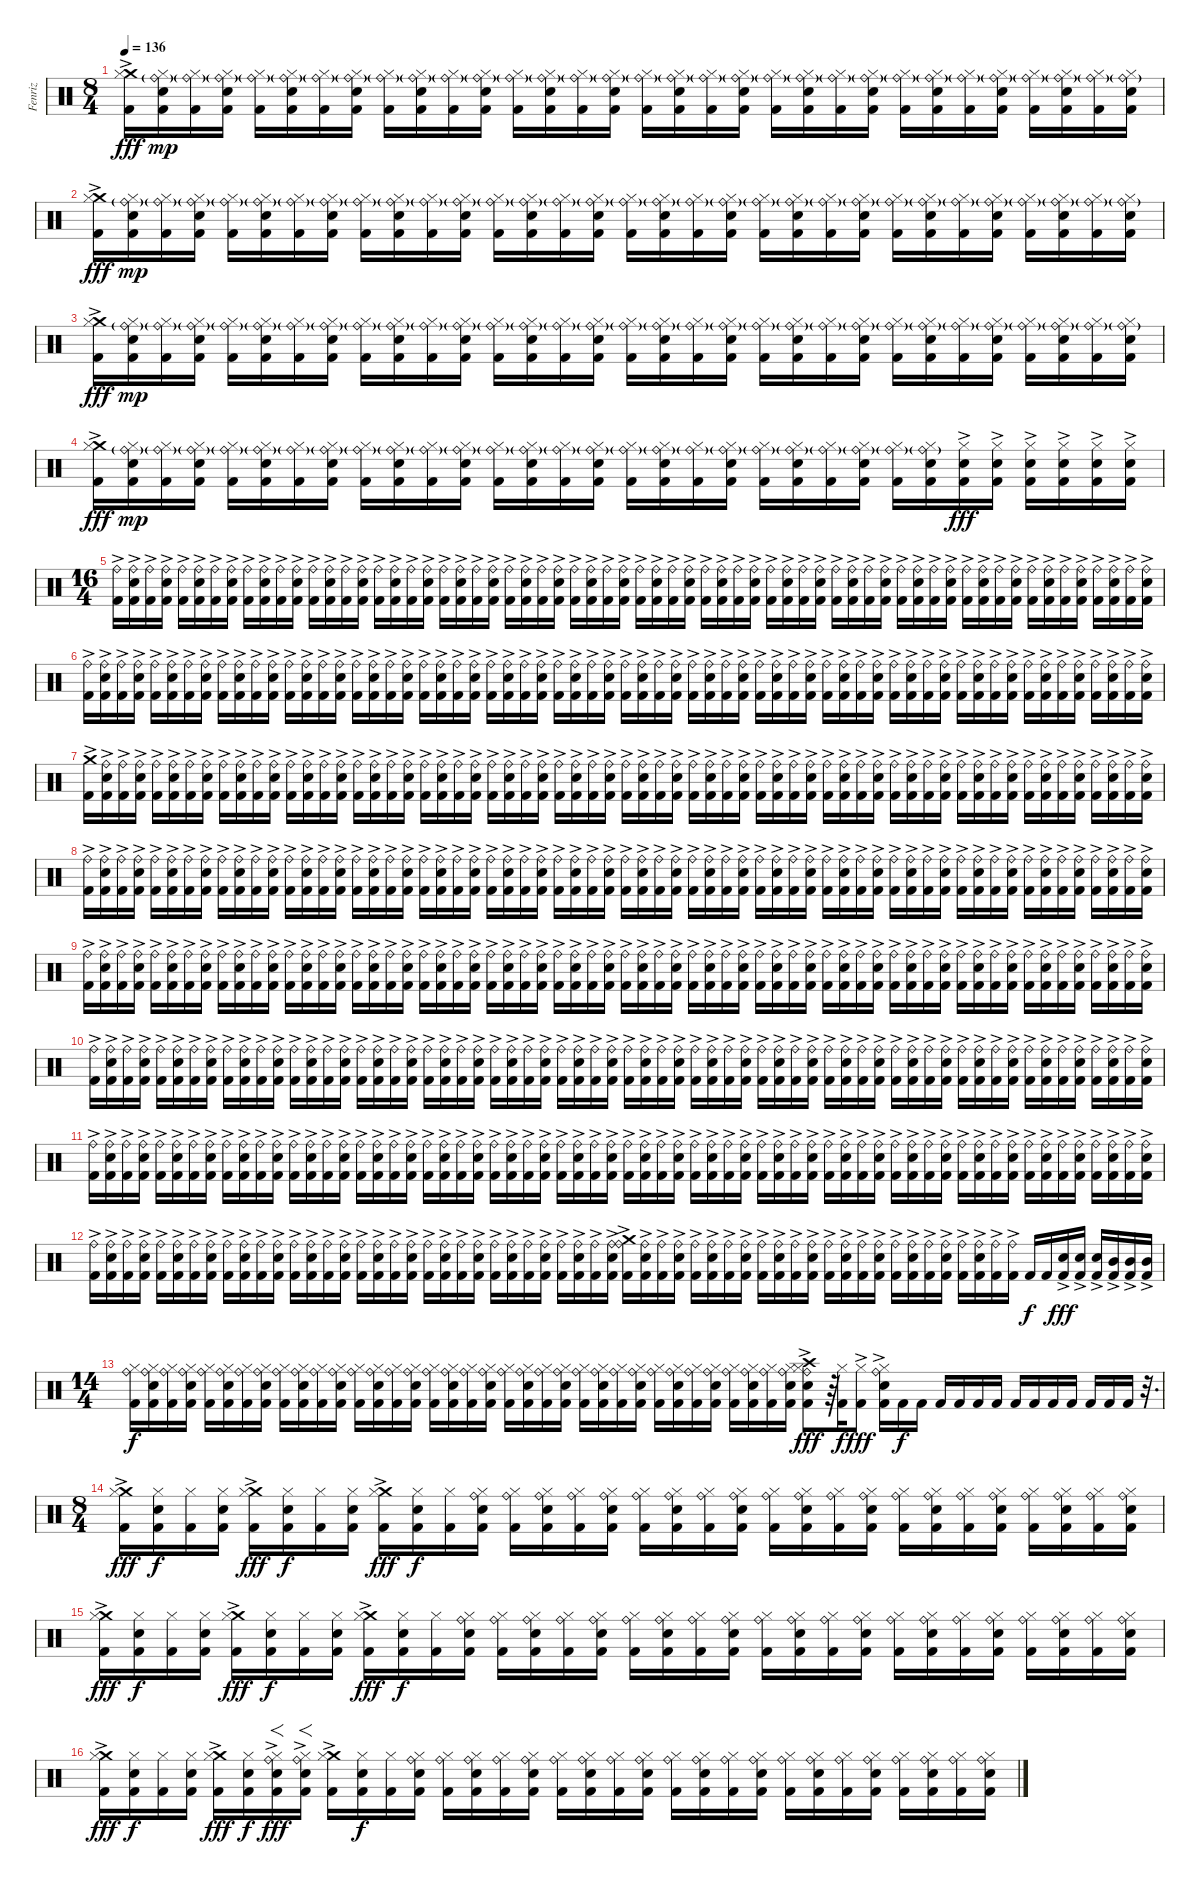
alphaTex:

\track ("Fenriz" "Fenriz") {instrument percussion}
\staff {score}
\articulation defaults
\ts (8 4)
\tempo 136
\clef neutral
\ks c
("Crash medium (hit)"{ac} "Hi-Hat (closed)" "Kick (hit) 2").16{dy fff} ("Ride (bell)"{g} "Snare (hit) 2" "Hi-Hat (closed)" "Kick (hit) 2").16{dy mp} ("Ride (bell)"{g} "Hi-Hat (closed)" "Kick (hit) 2").16 ("Ride (bell)"{g} "Snare (hit) 2" "Hi-Hat (closed)" "Kick (hit) 2").16 ("Ride (bell)"{g} "Hi-Hat (closed)" "Kick (hit) 2").16 ("Ride (bell)"{g} "Snare (hit) 2" "Hi-Hat (closed)" "Kick (hit) 2").16 ("Ride (bell)"{g} "Hi-Hat (closed)" "Kick (hit) 2").16 ("Ride (bell)"{g} "Snare (hit) 2" "Hi-Hat (closed)" "Kick (hit) 2").16 ("Ride (bell)"{g} "Hi-Hat (closed)" "Kick (hit) 2").16 ("Ride (bell)"{g} "Snare (hit) 2" "Hi-Hat (closed)" "Kick (hit) 2").16 ("Ride (bell)"{g} "Hi-Hat (closed)" "Kick (hit) 2").16 ("Ride (bell)"{g} "Snare (hit) 2" "Hi-Hat (closed)" "Kick (hit) 2").16 ("Ride (bell)"{g} "Hi-Hat (closed)" "Kick (hit) 2").16 ("Ride (bell)"{g} "Snare (hit) 2" "Hi-Hat (closed)" "Kick (hit) 2").16 ("Ride (bell)"{g} "Hi-Hat (closed)" "Kick (hit) 2").16 ("Ride (bell)"{g} "Snare (hit) 2" "Hi-Hat (closed)" "Kick (hit) 2").16 ("Ride (bell)"{g} "Hi-Hat (closed)" "Kick (hit) 2").16 ("Ride (bell)"{g} "Snare (hit) 2" "Hi-Hat (closed)" "Kick (hit) 2").16 ("Ride (bell)"{g} "Hi-Hat (closed)" "Kick (hit) 2").16 ("Ride (bell)"{g} "Snare (hit) 2" "Hi-Hat (closed)" "Kick (hit) 2").16 ("Ride (bell)"{g} "Hi-Hat (closed)" "Kick (hit) 2").16 ("Ride (bell)"{g} "Snare (hit) 2" "Hi-Hat (closed)" "Kick (hit) 2").16 ("Ride (bell)"{g} "Hi-Hat (closed)" "Kick (hit) 2").16 ("Ride (bell)"{g} "Snare (hit) 2" "Hi-Hat (closed)" "Kick (hit) 2").16 ("Ride (bell)"{g} "Hi-Hat (closed)" "Kick (hit) 2").16 ("Ride (bell)"{g} "Snare (hit) 2" "Hi-Hat (closed)" "Kick (hit) 2").16 ("Ride (bell)"{g} "Hi-Hat (closed)" "Kick (hit) 2").16 ("Ride (bell)"{g} "Snare (hit) 2" "Hi-Hat (closed)" "Kick (hit) 2").16 ("Ride (bell)"{g} "Hi-Hat (closed)" "Kick (hit) 2").16 ("Ride (bell)"{g} "Snare (hit) 2" "Hi-Hat (closed)" "Kick (hit) 2").16 ("Ride (bell)"{g} "Hi-Hat (closed)" "Kick (hit) 2").16 ("Ride (bell)"{g} "Snare (hit) 2" "Hi-Hat (closed)" "Kick (hit) 2").16 |
("Crash medium (hit)"{ac} "Hi-Hat (closed)" "Kick (hit) 2").16{dy fff} ("Ride (bell)"{g} "Snare (hit) 2" "Hi-Hat (closed)" "Kick (hit) 2").16{dy mp} ("Ride (bell)"{g} "Hi-Hat (closed)" "Kick (hit) 2").16 ("Ride (bell)"{g} "Snare (hit) 2" "Hi-Hat (closed)" "Kick (hit) 2").16 ("Ride (bell)"{g} "Hi-Hat (closed)" "Kick (hit) 2").16 ("Ride (bell)"{g} "Snare (hit) 2" "Hi-Hat (closed)" "Kick (hit) 2").16 ("Ride (bell)"{g} "Hi-Hat (closed)" "Kick (hit) 2").16 ("Ride (bell)"{g} "Snare (hit) 2" "Hi-Hat (closed)" "Kick (hit) 2").16 ("Ride (bell)"{g} "Hi-Hat (closed)" "Kick (hit) 2").16 ("Ride (bell)"{g} "Snare (hit) 2" "Hi-Hat (closed)" "Kick (hit) 2").16 ("Ride (bell)"{g} "Hi-Hat (closed)" "Kick (hit) 2").16 ("Ride (bell)"{g} "Snare (hit) 2" "Hi-Hat (closed)" "Kick (hit) 2").16 ("Ride (bell)"{g} "Hi-Hat (closed)" "Kick (hit) 2").16 ("Ride (bell)"{g} "Snare (hit) 2" "Hi-Hat (closed)" "Kick (hit) 2").16 ("Ride (bell)"{g} "Hi-Hat (closed)" "Kick (hit) 2").16 ("Ride (bell)"{g} "Snare (hit) 2" "Hi-Hat (closed)" "Kick (hit) 2").16 ("Ride (bell)"{g} "Hi-Hat (closed)" "Kick (hit) 2").16 ("Ride (bell)"{g} "Snare (hit) 2" "Hi-Hat (closed)" "Kick (hit) 2").16 ("Ride (bell)"{g} "Hi-Hat (closed)" "Kick (hit) 2").16 ("Ride (bell)"{g} "Snare (hit) 2" "Hi-Hat (closed)" "Kick (hit) 2").16 ("Ride (bell)"{g} "Hi-Hat (closed)" "Kick (hit) 2").16 ("Ride (bell)"{g} "Snare (hit) 2" "Hi-Hat (closed)" "Kick (hit) 2").16 ("Ride (bell)"{g} "Hi-Hat (closed)" "Kick (hit) 2").16 ("Ride (bell)"{g} "Snare (hit) 2" "Hi-Hat (closed)" "Kick (hit) 2").16 ("Ride (bell)"{g} "Hi-Hat (closed)" "Kick (hit) 2").16 ("Ride (bell)"{g} "Snare (hit) 2" "Hi-Hat (closed)" "Kick (hit) 2").16 ("Ride (bell)"{g} "Hi-Hat (closed)" "Kick (hit) 2").16 ("Ride (bell)"{g} "Snare (hit) 2" "Hi-Hat (closed)" "Kick (hit) 2").16 ("Ride (bell)"{g} "Hi-Hat (closed)" "Kick (hit) 2").16 ("Ride (bell)"{g} "Snare (hit) 2" "Hi-Hat (closed)" "Kick (hit) 2").16 ("Ride (bell)"{g} "Hi-Hat (closed)" "Kick (hit) 2").16 ("Ride (bell)"{g} "Snare (hit) 2" "Hi-Hat (closed)" "Kick (hit) 2").16 |
("Crash medium (hit)"{ac} "Hi-Hat (closed)" "Kick (hit) 2").16{dy fff} ("Ride (bell)"{g} "Snare (hit) 2" "Hi-Hat (closed)" "Kick (hit) 2").16{dy mp} ("Ride (bell)"{g} "Hi-Hat (closed)" "Kick (hit) 2").16 ("Ride (bell)"{g} "Snare (hit) 2" "Hi-Hat (closed)" "Kick (hit) 2").16 ("Ride (bell)"{g} "Hi-Hat (closed)" "Kick (hit) 2").16 ("Ride (bell)"{g} "Snare (hit) 2" "Hi-Hat (closed)" "Kick (hit) 2").16 ("Ride (bell)"{g} "Hi-Hat (closed)" "Kick (hit) 2").16 ("Ride (bell)"{g} "Snare (hit) 2" "Hi-Hat (closed)" "Kick (hit) 2").16 ("Ride (bell)"{g} "Hi-Hat (closed)" "Kick (hit) 2").16 ("Ride (bell)"{g} "Snare (hit) 2" "Hi-Hat (closed)" "Kick (hit) 2").16 ("Ride (bell)"{g} "Hi-Hat (closed)" "Kick (hit) 2").16 ("Ride (bell)"{g} "Snare (hit) 2" "Hi-Hat (closed)" "Kick (hit) 2").16 ("Ride (bell)"{g} "Hi-Hat (closed)" "Kick (hit) 2").16 ("Ride (bell)"{g} "Snare (hit) 2" "Hi-Hat (closed)" "Kick (hit) 2").16 ("Ride (bell)"{g} "Hi-Hat (closed)" "Kick (hit) 2").16 ("Ride (bell)"{g} "Snare (hit) 2" "Hi-Hat (closed)" "Kick (hit) 2").16 ("Ride (bell)"{g} "Hi-Hat (closed)" "Kick (hit) 2").16 ("Ride (bell)"{g} "Snare (hit) 2" "Hi-Hat (closed)" "Kick (hit) 2").16 ("Ride (bell)"{g} "Hi-Hat (closed)" "Kick (hit) 2").16 ("Ride (bell)"{g} "Snare (hit) 2" "Hi-Hat (closed)" "Kick (hit) 2").16 ("Ride (bell)"{g} "Hi-Hat (closed)" "Kick (hit) 2").16 ("Ride (bell)"{g} "Snare (hit) 2" "Hi-Hat (closed)" "Kick (hit) 2").16 ("Ride (bell)"{g} "Hi-Hat (closed)" "Kick (hit) 2").16 ("Ride (bell)"{g} "Snare (hit) 2" "Hi-Hat (closed)" "Kick (hit) 2").16 ("Ride (bell)"{g} "Hi-Hat (closed)" "Kick (hit) 2").16 ("Ride (bell)"{g} "Snare (hit) 2" "Hi-Hat (closed)" "Kick (hit) 2").16 ("Ride (bell)"{g} "Hi-Hat (closed)" "Kick (hit) 2").16 ("Ride (bell)"{g} "Snare (hit) 2" "Hi-Hat (closed)" "Kick (hit) 2").16 ("Ride (bell)"{g} "Hi-Hat (closed)" "Kick (hit) 2").16 ("Ride (bell)"{g} "Snare (hit) 2" "Hi-Hat (closed)" "Kick (hit) 2").16 ("Ride (bell)"{g} "Hi-Hat (closed)" "Kick (hit) 2").16 ("Ride (bell)"{g} "Snare (hit) 2" "Hi-Hat (closed)" "Kick (hit) 2").16 |
("Crash medium (hit)"{ac} "Hi-Hat (closed)" "Kick (hit) 2").16{dy fff} ("Ride (bell)"{g} "Snare (hit) 2" "Hi-Hat (closed)" "Kick (hit) 2").16{dy mp} ("Ride (bell)"{g} "Hi-Hat (closed)" "Kick (hit) 2").16 ("Ride (bell)"{g} "Snare (hit) 2" "Hi-Hat (closed)" "Kick (hit) 2").16 ("Ride (bell)"{g} "Hi-Hat (closed)" "Kick (hit) 2").16 ("Ride (bell)"{g} "Snare (hit) 2" "Hi-Hat (closed)" "Kick (hit) 2").16 ("Ride (bell)"{g} "Hi-Hat (closed)" "Kick (hit) 2").16 ("Ride (bell)"{g} "Snare (hit) 2" "Hi-Hat (closed)" "Kick (hit) 2").16 ("Ride (bell)"{g} "Hi-Hat (closed)" "Kick (hit) 2").16 ("Ride (bell)"{g} "Snare (hit) 2" "Hi-Hat (closed)" "Kick (hit) 2").16 ("Ride (bell)"{g} "Hi-Hat (closed)" "Kick (hit) 2").16 ("Ride (bell)"{g} "Snare (hit) 2" "Hi-Hat (closed)" "Kick (hit) 2").16 ("Ride (bell)"{g} "Hi-Hat (closed)" "Kick (hit) 2").16 ("Ride (bell)"{g} "Snare (hit) 2" "Hi-Hat (closed)" "Kick (hit) 2").16 ("Ride (bell)"{g} "Hi-Hat (closed)" "Kick (hit) 2").16 ("Ride (bell)"{g} "Snare (hit) 2" "Hi-Hat (closed)" "Kick (hit) 2").16 ("Ride (bell)"{g} "Hi-Hat (closed)" "Kick (hit) 2").16 ("Ride (bell)"{g} "Snare (hit) 2" "Hi-Hat (closed)" "Kick (hit) 2").16 ("Ride (bell)"{g} "Hi-Hat (closed)" "Kick (hit) 2").16 ("Ride (bell)"{g} "Snare (hit) 2" "Hi-Hat (closed)" "Kick (hit) 2").16 ("Ride (bell)"{g} "Hi-Hat (closed)" "Kick (hit) 2").16 ("Ride (bell)"{g} "Snare (hit) 2" "Hi-Hat (closed)" "Kick (hit) 2").16 ("Ride (bell)"{g} "Hi-Hat (closed)" "Kick (hit) 2").16 ("Ride (bell)"{g} "Snare (hit) 2" "Hi-Hat (closed)" "Kick (hit) 2").16 ("Ride (bell)"{g} "Hi-Hat (closed)" "Kick (hit) 2").16 ("Ride (bell)"{g} "Snare (hit) 2" "Hi-Hat (closed)" "Kick (hit) 2").16 ("Snare (hit) 2"{ac} "Hi-Hat (closed)" "Kick (hit) 2").16{dy fff} ("Snare (hit) 2"{ac} "Hi-Hat (closed)" "Kick (hit) 2").16 ("Snare (hit) 2"{ac} "Hi-Hat (closed)" "Kick (hit) 2").16 ("Snare (hit) 2"{ac} "Hi-Hat (closed)" "Kick (hit) 2").16 ("Snare (hit) 2"{ac} "Hi-Hat (closed)" "Kick (hit) 2").16 ("Snare (hit) 2"{ac} "Hi-Hat (closed)" "Kick (hit) 2").16 |
\ts (16 4)
("Ride (bell)"{ac} "Kick (hit) 2").16 ("Ride (bell)"{ac} "Snare (hit) 2" "Kick (hit) 2").16 ("Ride (bell)"{ac} "Kick (hit) 2").16 ("Ride (bell)"{ac} "Snare (hit) 2" "Kick (hit) 2").16 ("Ride (bell)"{ac} "Kick (hit) 2").16 ("Ride (bell)"{ac} "Snare (hit) 2" "Kick (hit) 2").16 ("Ride (bell)"{ac} "Kick (hit) 2").16 ("Ride (bell)"{ac} "Snare (hit) 2" "Kick (hit) 2").16 ("Ride (bell)"{ac} "Kick (hit) 2").16 ("Ride (bell)"{ac} "Snare (hit) 2" "Kick (hit) 2").16 ("Ride (bell)"{ac} "Kick (hit) 2").16 ("Ride (bell)"{ac} "Snare (hit) 2" "Kick (hit) 2").16 ("Ride (bell)"{ac} "Kick (hit) 2").16 ("Ride (bell)"{ac} "Snare (hit) 2" "Kick (hit) 2").16 ("Ride (bell)"{ac} "Kick (hit) 2").16 ("Ride (bell)"{ac} "Snare (hit) 2" "Kick (hit) 2").16 ("Ride (bell)"{ac} "Kick (hit) 2").16 ("Ride (bell)"{ac} "Snare (hit) 2" "Kick (hit) 2").16 ("Ride (bell)"{ac} "Kick (hit) 2").16 ("Ride (bell)"{ac} "Snare (hit) 2" "Kick (hit) 2").16 ("Ride (bell)"{ac} "Kick (hit) 2").16 ("Ride (bell)"{ac} "Snare (hit) 2" "Kick (hit) 2").16 ("Ride (bell)"{ac} "Kick (hit) 2").16 ("Ride (bell)"{ac} "Snare (hit) 2" "Kick (hit) 2").16 ("Ride (bell)"{ac} "Kick (hit) 2").16 ("Ride (bell)"{ac} "Snare (hit) 2" "Kick (hit) 2").16 ("Ride (bell)"{ac} "Kick (hit) 2").16 ("Ride (bell)"{ac} "Snare (hit) 2" "Kick (hit) 2").16 ("Ride (bell)"{ac} "Kick (hit) 2").16 ("Ride (bell)"{ac} "Snare (hit) 2" "Kick (hit) 2").16 ("Ride (bell)"{ac} "Kick (hit) 2").16 ("Ride (bell)"{ac} "Snare (hit) 2" "Kick (hit) 2").16 ("Ride (bell)"{ac} "Kick (hit) 2").16 ("Ride (bell)"{ac} "Snare (hit) 2" "Kick (hit) 2").16 ("Ride (bell)"{ac} "Kick (hit) 2").16 ("Ride (bell)"{ac} "Snare (hit) 2" "Kick (hit) 2").16 ("Ride (bell)"{ac} "Kick (hit) 2").16 ("Ride (bell)"{ac} "Snare (hit) 2" "Kick (hit) 2").16 ("Ride (bell)"{ac} "Kick (hit) 2").16 ("Ride (bell)"{ac} "Snare (hit) 2" "Kick (hit) 2").16 ("Ride (bell)"{ac} "Kick (hit) 2").16 ("Ride (bell)"{ac} "Snare (hit) 2" "Kick (hit) 2").16 ("Ride (bell)"{ac} "Kick (hit) 2").16 ("Ride (bell)"{ac} "Snare (hit) 2" "Kick (hit) 2").16 ("Ride (bell)"{ac} "Kick (hit) 2").16 ("Ride (bell)"{ac} "Snare (hit) 2" "Kick (hit) 2").16 ("Ride (bell)"{ac} "Kick (hit) 2").16 ("Ride (bell)"{ac} "Snare (hit) 2" "Kick (hit) 2").16 ("Ride (bell)"{ac} "Kick (hit) 2").16 ("Ride (bell)"{ac} "Snare (hit) 2" "Kick (hit) 2").16 ("Ride (bell)"{ac} "Kick (hit) 2").16 ("Ride (bell)"{ac} "Snare (hit) 2" "Kick (hit) 2").16 ("Ride (bell)"{ac} "Kick (hit) 2").16 ("Ride (bell)"{ac} "Snare (hit) 2" "Kick (hit) 2").16 ("Ride (bell)"{ac} "Kick (hit) 2").16 ("Ride (bell)"{ac} "Snare (hit) 2" "Kick (hit) 2").16 ("Ride (bell)"{ac} "Kick (hit) 2").16 ("Ride (bell)"{ac} "Snare (hit) 2" "Kick (hit) 2").16 ("Ride (bell)"{ac} "Kick (hit) 2").16 ("Ride (bell)"{ac} "Snare (hit) 2" "Kick (hit) 2").16 ("Ride (bell)"{ac} "Kick (hit) 2").16 ("Ride (bell)"{ac} "Snare (hit) 2" "Kick (hit) 2").16 ("Ride (bell)"{ac} "Kick (hit) 2").16 ("Ride (bell)"{ac} "Snare (hit) 2" "Kick (hit) 2").16 |
("Ride (bell)"{ac} "Kick (hit) 2").16 ("Ride (bell)"{ac} "Snare (hit) 2" "Kick (hit) 2").16 ("Ride (bell)"{ac} "Kick (hit) 2").16 ("Ride (bell)"{ac} "Snare (hit) 2" "Kick (hit) 2").16 ("Ride (bell)"{ac} "Kick (hit) 2").16 ("Ride (bell)"{ac} "Snare (hit) 2" "Kick (hit) 2").16 ("Ride (bell)"{ac} "Kick (hit) 2").16 ("Ride (bell)"{ac} "Snare (hit) 2" "Kick (hit) 2").16 ("Ride (bell)"{ac} "Kick (hit) 2").16 ("Ride (bell)"{ac} "Snare (hit) 2" "Kick (hit) 2").16 ("Ride (bell)"{ac} "Kick (hit) 2").16 ("Ride (bell)"{ac} "Snare (hit) 2" "Kick (hit) 2").16 ("Ride (bell)"{ac} "Kick (hit) 2").16 ("Ride (bell)"{ac} "Snare (hit) 2" "Kick (hit) 2").16 ("Ride (bell)"{ac} "Kick (hit) 2").16 ("Ride (bell)"{ac} "Snare (hit) 2" "Kick (hit) 2").16 ("Ride (bell)"{ac} "Kick (hit) 2").16 ("Ride (bell)"{ac} "Snare (hit) 2" "Kick (hit) 2").16 ("Ride (bell)"{ac} "Kick (hit) 2").16 ("Ride (bell)"{ac} "Snare (hit) 2" "Kick (hit) 2").16 ("Ride (bell)"{ac} "Kick (hit) 2").16 ("Ride (bell)"{ac} "Snare (hit) 2" "Kick (hit) 2").16 ("Ride (bell)"{ac} "Kick (hit) 2").16 ("Ride (bell)"{ac} "Snare (hit) 2" "Kick (hit) 2").16 ("Ride (bell)"{ac} "Kick (hit) 2").16 ("Ride (bell)"{ac} "Snare (hit) 2" "Kick (hit) 2").16 ("Ride (bell)"{ac} "Kick (hit) 2").16 ("Ride (bell)"{ac} "Snare (hit) 2" "Kick (hit) 2").16 ("Ride (bell)"{ac} "Kick (hit) 2").16 ("Ride (bell)"{ac} "Snare (hit) 2" "Kick (hit) 2").16 ("Ride (bell)"{ac} "Kick (hit) 2").16 ("Ride (bell)"{ac} "Snare (hit) 2" "Kick (hit) 2").16 ("Ride (bell)"{ac} "Kick (hit) 2").16 ("Ride (bell)"{ac} "Snare (hit) 2" "Kick (hit) 2").16 ("Ride (bell)"{ac} "Kick (hit) 2").16 ("Ride (bell)"{ac} "Snare (hit) 2" "Kick (hit) 2").16 ("Ride (bell)"{ac} "Kick (hit) 2").16 ("Ride (bell)"{ac} "Snare (hit) 2" "Kick (hit) 2").16 ("Ride (bell)"{ac} "Kick (hit) 2").16 ("Ride (bell)"{ac} "Snare (hit) 2" "Kick (hit) 2").16 ("Ride (bell)"{ac} "Kick (hit) 2").16 ("Ride (bell)"{ac} "Snare (hit) 2" "Kick (hit) 2").16 ("Ride (bell)"{ac} "Kick (hit) 2").16 ("Ride (bell)"{ac} "Snare (hit) 2" "Kick (hit) 2").16 ("Ride (bell)"{ac} "Kick (hit) 2").16 ("Ride (bell)"{ac} "Snare (hit) 2" "Kick (hit) 2").16 ("Ride (bell)"{ac} "Kick (hit) 2").16 ("Ride (bell)"{ac} "Snare (hit) 2" "Kick (hit) 2").16 ("Ride (bell)"{ac} "Kick (hit) 2").16 ("Ride (bell)"{ac} "Snare (hit) 2" "Kick (hit) 2").16 ("Ride (bell)"{ac} "Kick (hit) 2").16 ("Ride (bell)"{ac} "Snare (hit) 2" "Kick (hit) 2").16 ("Ride (bell)"{ac} "Kick (hit) 2").16 ("Ride (bell)"{ac} "Snare (hit) 2" "Kick (hit) 2").16 ("Ride (bell)"{ac} "Kick (hit) 2").16 ("Ride (bell)"{ac} "Snare (hit) 2" "Kick (hit) 2").16 ("Ride (bell)"{ac} "Kick (hit) 2").16 ("Ride (bell)"{ac} "Snare (hit) 2" "Kick (hit) 2").16 ("Ride (bell)"{ac} "Kick (hit) 2").16 ("Ride (bell)"{ac} "Snare (hit) 2" "Kick (hit) 2").16 ("Ride (bell)"{ac} "Kick (hit) 2").16 ("Ride (bell)"{ac} "Snare (hit) 2" "Kick (hit) 2").16 ("Ride (bell)"{ac} "Kick (hit) 2").16 ("Ride (bell)"{ac} "Snare (hit) 2" "Kick (hit) 2").16 |
("Crash medium (hit)"{ac} "Kick (hit) 2").16 ("Ride (bell)"{ac} "Snare (hit) 2" "Kick (hit) 2").16 ("Ride (bell)"{ac} "Kick (hit) 2").16 ("Ride (bell)"{ac} "Snare (hit) 2" "Kick (hit) 2").16 ("Ride (bell)"{ac} "Kick (hit) 2").16 ("Ride (bell)"{ac} "Snare (hit) 2" "Kick (hit) 2").16 ("Ride (bell)"{ac} "Kick (hit) 2").16 ("Ride (bell)"{ac} "Snare (hit) 2" "Kick (hit) 2").16 ("Ride (bell)"{ac} "Kick (hit) 2").16 ("Ride (bell)"{ac} "Snare (hit) 2" "Kick (hit) 2").16 ("Ride (bell)"{ac} "Kick (hit) 2").16 ("Ride (bell)"{ac} "Snare (hit) 2" "Kick (hit) 2").16 ("Ride (bell)"{ac} "Kick (hit) 2").16 ("Ride (bell)"{ac} "Snare (hit) 2" "Kick (hit) 2").16 ("Ride (bell)"{ac} "Kick (hit) 2").16 ("Ride (bell)"{ac} "Snare (hit) 2" "Kick (hit) 2").16 ("Ride (bell)"{ac} "Kick (hit) 2").16 ("Ride (bell)"{ac} "Snare (hit) 2" "Kick (hit) 2").16 ("Ride (bell)"{ac} "Kick (hit) 2").16 ("Ride (bell)"{ac} "Snare (hit) 2" "Kick (hit) 2").16 ("Ride (bell)"{ac} "Kick (hit) 2").16 ("Ride (bell)"{ac} "Snare (hit) 2" "Kick (hit) 2").16 ("Ride (bell)"{ac} "Kick (hit) 2").16 ("Ride (bell)"{ac} "Snare (hit) 2" "Kick (hit) 2").16 ("Ride (bell)"{ac} "Kick (hit) 2").16 ("Ride (bell)"{ac} "Snare (hit) 2" "Kick (hit) 2").16 ("Ride (bell)"{ac} "Kick (hit) 2").16 ("Ride (bell)"{ac} "Snare (hit) 2" "Kick (hit) 2").16 ("Ride (bell)"{ac} "Kick (hit) 2").16 ("Ride (bell)"{ac} "Snare (hit) 2" "Kick (hit) 2").16 ("Ride (bell)"{ac} "Kick (hit) 2").16 ("Ride (bell)"{ac} "Snare (hit) 2" "Kick (hit) 2").16 ("Ride (bell)"{ac} "Kick (hit) 2").16 ("Ride (bell)"{ac} "Snare (hit) 2" "Kick (hit) 2").16 ("Ride (bell)"{ac} "Kick (hit) 2").16 ("Ride (bell)"{ac} "Snare (hit) 2" "Kick (hit) 2").16 ("Ride (bell)"{ac} "Kick (hit) 2").16 ("Ride (bell)"{ac} "Snare (hit) 2" "Kick (hit) 2").16 ("Ride (bell)"{ac} "Kick (hit) 2").16 ("Ride (bell)"{ac} "Snare (hit) 2" "Kick (hit) 2").16 ("Ride (bell)"{ac} "Kick (hit) 2").16 ("Ride (bell)"{ac} "Snare (hit) 2" "Kick (hit) 2").16 ("Ride (bell)"{ac} "Kick (hit) 2").16 ("Ride (bell)"{ac} "Snare (hit) 2" "Kick (hit) 2").16 ("Ride (bell)"{ac} "Kick (hit) 2").16 ("Ride (bell)"{ac} "Snare (hit) 2" "Kick (hit) 2").16 ("Ride (bell)"{ac} "Kick (hit) 2").16 ("Ride (bell)"{ac} "Snare (hit) 2" "Kick (hit) 2").16 ("Ride (bell)"{ac} "Kick (hit) 2").16 ("Ride (bell)"{ac} "Snare (hit) 2" "Kick (hit) 2").16 ("Ride (bell)"{ac} "Kick (hit) 2").16 ("Ride (bell)"{ac} "Snare (hit) 2" "Kick (hit) 2").16 ("Ride (bell)"{ac} "Kick (hit) 2").16 ("Ride (bell)"{ac} "Snare (hit) 2" "Kick (hit) 2").16 ("Ride (bell)"{ac} "Kick (hit) 2").16 ("Ride (bell)"{ac} "Snare (hit) 2" "Kick (hit) 2").16 ("Ride (bell)"{ac} "Kick (hit) 2").16 ("Ride (bell)"{ac} "Snare (hit) 2" "Kick (hit) 2").16 ("Ride (bell)"{ac} "Kick (hit) 2").16 ("Ride (bell)"{ac} "Snare (hit) 2" "Kick (hit) 2").16 ("Ride (bell)"{ac} "Kick (hit) 2").16 ("Ride (bell)"{ac} "Snare (hit) 2" "Kick (hit) 2").16 ("Ride (bell)"{ac} "Kick (hit) 2").16 ("Ride (bell)"{ac} "Snare (hit) 2" "Kick (hit) 2").16 |
("Ride (bell)"{ac} "Kick (hit) 2").16 ("Ride (bell)"{ac} "Snare (hit) 2" "Kick (hit) 2").16 ("Ride (bell)"{ac} "Kick (hit) 2").16 ("Ride (bell)"{ac} "Snare (hit) 2" "Kick (hit) 2").16 ("Ride (bell)"{ac} "Kick (hit) 2").16 ("Ride (bell)"{ac} "Snare (hit) 2" "Kick (hit) 2").16 ("Ride (bell)"{ac} "Kick (hit) 2").16 ("Ride (bell)"{ac} "Snare (hit) 2" "Kick (hit) 2").16 ("Ride (bell)"{ac} "Kick (hit) 2").16 ("Ride (bell)"{ac} "Snare (hit) 2" "Kick (hit) 2").16 ("Ride (bell)"{ac} "Kick (hit) 2").16 ("Ride (bell)"{ac} "Snare (hit) 2" "Kick (hit) 2").16 ("Ride (bell)"{ac} "Kick (hit) 2").16 ("Ride (bell)"{ac} "Snare (hit) 2" "Kick (hit) 2").16 ("Ride (bell)"{ac} "Kick (hit) 2").16 ("Ride (bell)"{ac} "Snare (hit) 2" "Kick (hit) 2").16 ("Ride (bell)"{ac} "Kick (hit) 2").16 ("Ride (bell)"{ac} "Snare (hit) 2" "Kick (hit) 2").16 ("Ride (bell)"{ac} "Kick (hit) 2").16 ("Ride (bell)"{ac} "Snare (hit) 2" "Kick (hit) 2").16 ("Ride (bell)"{ac} "Kick (hit) 2").16 ("Ride (bell)"{ac} "Snare (hit) 2" "Kick (hit) 2").16 ("Ride (bell)"{ac} "Kick (hit) 2").16 ("Ride (bell)"{ac} "Snare (hit) 2" "Kick (hit) 2").16 ("Ride (bell)"{ac} "Kick (hit) 2").16 ("Ride (bell)"{ac} "Snare (hit) 2" "Kick (hit) 2").16 ("Ride (bell)"{ac} "Kick (hit) 2").16 ("Ride (bell)"{ac} "Snare (hit) 2" "Kick (hit) 2").16 ("Ride (bell)"{ac} "Kick (hit) 2").16 ("Ride (bell)"{ac} "Snare (hit) 2" "Kick (hit) 2").16 ("Ride (bell)"{ac} "Kick (hit) 2").16 ("Ride (bell)"{ac} "Snare (hit) 2" "Kick (hit) 2").16 ("Ride (bell)"{ac} "Kick (hit) 2").16 ("Ride (bell)"{ac} "Snare (hit) 2" "Kick (hit) 2").16 ("Ride (bell)"{ac} "Kick (hit) 2").16 ("Ride (bell)"{ac} "Snare (hit) 2" "Kick (hit) 2").16 ("Ride (bell)"{ac} "Kick (hit) 2").16 ("Ride (bell)"{ac} "Snare (hit) 2" "Kick (hit) 2").16 ("Ride (bell)"{ac} "Kick (hit) 2").16 ("Ride (bell)"{ac} "Snare (hit) 2" "Kick (hit) 2").16 ("Ride (bell)"{ac} "Kick (hit) 2").16 ("Ride (bell)"{ac} "Snare (hit) 2" "Kick (hit) 2").16 ("Ride (bell)"{ac} "Kick (hit) 2").16 ("Ride (bell)"{ac} "Snare (hit) 2" "Kick (hit) 2").16 ("Ride (bell)"{ac} "Kick (hit) 2").16 ("Ride (bell)"{ac} "Snare (hit) 2" "Kick (hit) 2").16 ("Ride (bell)"{ac} "Kick (hit) 2").16 ("Ride (bell)"{ac} "Snare (hit) 2" "Kick (hit) 2").16 ("Ride (bell)"{ac} "Kick (hit) 2").16 ("Ride (bell)"{ac} "Snare (hit) 2" "Kick (hit) 2").16 ("Ride (bell)"{ac} "Kick (hit) 2").16 ("Ride (bell)"{ac} "Snare (hit) 2" "Kick (hit) 2").16 ("Ride (bell)"{ac} "Kick (hit) 2").16 ("Ride (bell)"{ac} "Snare (hit) 2" "Kick (hit) 2").16 ("Ride (bell)"{ac} "Kick (hit) 2").16 ("Ride (bell)"{ac} "Snare (hit) 2" "Kick (hit) 2").16 ("Ride (bell)"{ac} "Kick (hit) 2").16 ("Ride (bell)"{ac} "Snare (hit) 2" "Kick (hit) 2").16 ("Ride (bell)"{ac} "Kick (hit) 2").16 ("Ride (bell)"{ac} "Snare (hit) 2" "Kick (hit) 2").16 ("Ride (bell)"{ac} "Kick (hit) 2").16 ("Ride (bell)"{ac} "Snare (hit) 2" "Kick (hit) 2").16 ("Ride (bell)"{ac} "Kick (hit) 2").16 ("Ride (bell)"{ac} "Snare (hit) 2" "Kick (hit) 2").16 |
("Ride (bell)"{ac} "Kick (hit) 2").16 ("Ride (bell)"{ac} "Snare (hit) 2" "Kick (hit) 2").16 ("Ride (bell)"{ac} "Kick (hit) 2").16 ("Ride (bell)"{ac} "Snare (hit) 2" "Kick (hit) 2").16 ("Ride (bell)"{ac} "Kick (hit) 2").16 ("Ride (bell)"{ac} "Snare (hit) 2" "Kick (hit) 2").16 ("Ride (bell)"{ac} "Kick (hit) 2").16 ("Ride (bell)"{ac} "Snare (hit) 2" "Kick (hit) 2").16 ("Ride (bell)"{ac} "Kick (hit) 2").16 ("Ride (bell)"{ac} "Snare (hit) 2" "Kick (hit) 2").16 ("Ride (bell)"{ac} "Kick (hit) 2").16 ("Ride (bell)"{ac} "Snare (hit) 2" "Kick (hit) 2").16 ("Ride (bell)"{ac} "Kick (hit) 2").16 ("Ride (bell)"{ac} "Snare (hit) 2" "Kick (hit) 2").16 ("Ride (bell)"{ac} "Kick (hit) 2").16 ("Ride (bell)"{ac} "Snare (hit) 2" "Kick (hit) 2").16 ("Ride (bell)"{ac} "Kick (hit) 2").16 ("Ride (bell)"{ac} "Snare (hit) 2" "Kick (hit) 2").16 ("Ride (bell)"{ac} "Kick (hit) 2").16 ("Ride (bell)"{ac} "Snare (hit) 2" "Kick (hit) 2").16 ("Ride (bell)"{ac} "Kick (hit) 2").16 ("Ride (bell)"{ac} "Snare (hit) 2" "Kick (hit) 2").16 ("Ride (bell)"{ac} "Kick (hit) 2").16 ("Ride (bell)"{ac} "Snare (hit) 2" "Kick (hit) 2").16 ("Ride (bell)"{ac} "Kick (hit) 2").16 ("Ride (bell)"{ac} "Snare (hit) 2" "Kick (hit) 2").16 ("Ride (bell)"{ac} "Kick (hit) 2").16 ("Ride (bell)"{ac} "Snare (hit) 2" "Kick (hit) 2").16 ("Ride (bell)"{ac} "Kick (hit) 2").16 ("Ride (bell)"{ac} "Snare (hit) 2" "Kick (hit) 2").16 ("Ride (bell)"{ac} "Kick (hit) 2").16 ("Ride (bell)"{ac} "Snare (hit) 2" "Kick (hit) 2").16 ("Ride (bell)"{ac} "Kick (hit) 2").16 ("Ride (bell)"{ac} "Snare (hit) 2" "Kick (hit) 2").16 ("Ride (bell)"{ac} "Kick (hit) 2").16 ("Ride (bell)"{ac} "Snare (hit) 2" "Kick (hit) 2").16 ("Ride (bell)"{ac} "Kick (hit) 2").16 ("Ride (bell)"{ac} "Snare (hit) 2" "Kick (hit) 2").16 ("Ride (bell)"{ac} "Kick (hit) 2").16 ("Ride (bell)"{ac} "Snare (hit) 2" "Kick (hit) 2").16 ("Ride (bell)"{ac} "Kick (hit) 2").16 ("Ride (bell)"{ac} "Snare (hit) 2" "Kick (hit) 2").16 ("Ride (bell)"{ac} "Kick (hit) 2").16 ("Ride (bell)"{ac} "Snare (hit) 2" "Kick (hit) 2").16 ("Ride (bell)"{ac} "Kick (hit) 2").16 ("Ride (bell)"{ac} "Snare (hit) 2" "Kick (hit) 2").16 ("Ride (bell)"{ac} "Kick (hit) 2").16 ("Ride (bell)"{ac} "Snare (hit) 2" "Kick (hit) 2").16 ("Ride (bell)"{ac} "Kick (hit) 2").16 ("Ride (bell)"{ac} "Snare (hit) 2" "Kick (hit) 2").16 ("Ride (bell)"{ac} "Kick (hit) 2").16 ("Ride (bell)"{ac} "Snare (hit) 2" "Kick (hit) 2").16 ("Ride (bell)"{ac} "Kick (hit) 2").16 ("Ride (bell)"{ac} "Snare (hit) 2" "Kick (hit) 2").16 ("Ride (bell)"{ac} "Kick (hit) 2").16 ("Ride (bell)"{ac} "Snare (hit) 2" "Kick (hit) 2").16 ("Ride (bell)"{ac} "Kick (hit) 2").16 ("Ride (bell)"{ac} "Snare (hit) 2" "Kick (hit) 2").16 ("Ride (bell)"{ac} "Kick (hit) 2").16 ("Ride (bell)"{ac} "Snare (hit) 2" "Kick (hit) 2").16 ("Ride (bell)"{ac} "Kick (hit) 2").16 ("Ride (bell)"{ac} "Snare (hit) 2" "Kick (hit) 2").16 ("Ride (bell)"{ac} "Kick (hit) 2").16 ("Ride (bell)"{ac} "Snare (hit) 2" "Kick (hit) 2").16 |
("Ride (bell)"{ac} "Kick (hit) 2").16 ("Ride (bell)"{ac} "Snare (hit) 2" "Kick (hit) 2").16 ("Ride (bell)"{ac} "Kick (hit) 2").16 ("Ride (bell)"{ac} "Snare (hit) 2" "Kick (hit) 2").16 ("Ride (bell)"{ac} "Kick (hit) 2").16 ("Ride (bell)"{ac} "Snare (hit) 2" "Kick (hit) 2").16 ("Ride (bell)"{ac} "Kick (hit) 2").16 ("Ride (bell)"{ac} "Snare (hit) 2" "Kick (hit) 2").16 ("Ride (bell)"{ac} "Kick (hit) 2").16 ("Ride (bell)"{ac} "Snare (hit) 2" "Kick (hit) 2").16 ("Ride (bell)"{ac} "Kick (hit) 2").16 ("Ride (bell)"{ac} "Snare (hit) 2" "Kick (hit) 2").16 ("Ride (bell)"{ac} "Kick (hit) 2").16 ("Ride (bell)"{ac} "Snare (hit) 2" "Kick (hit) 2").16 ("Ride (bell)"{ac} "Kick (hit) 2").16 ("Ride (bell)"{ac} "Snare (hit) 2" "Kick (hit) 2").16 ("Ride (bell)"{ac} "Kick (hit) 2").16 ("Ride (bell)"{ac} "Snare (hit) 2" "Kick (hit) 2").16 ("Ride (bell)"{ac} "Kick (hit) 2").16 ("Ride (bell)"{ac} "Snare (hit) 2" "Kick (hit) 2").16 ("Ride (bell)"{ac} "Kick (hit) 2").16 ("Ride (bell)"{ac} "Snare (hit) 2" "Kick (hit) 2").16 ("Ride (bell)"{ac} "Kick (hit) 2").16 ("Ride (bell)"{ac} "Snare (hit) 2" "Kick (hit) 2").16 ("Ride (bell)"{ac} "Kick (hit) 2").16 ("Ride (bell)"{ac} "Snare (hit) 2" "Kick (hit) 2").16 ("Ride (bell)"{ac} "Kick (hit) 2").16 ("Ride (bell)"{ac} "Snare (hit) 2" "Kick (hit) 2").16 ("Ride (bell)"{ac} "Kick (hit) 2").16 ("Ride (bell)"{ac} "Snare (hit) 2" "Kick (hit) 2").16 ("Ride (bell)"{ac} "Kick (hit) 2").16 ("Ride (bell)"{ac} "Snare (hit) 2" "Kick (hit) 2").16 ("Ride (bell)"{ac} "Kick (hit) 2").16 ("Ride (bell)"{ac} "Snare (hit) 2" "Kick (hit) 2").16 ("Ride (bell)"{ac} "Kick (hit) 2").16 ("Ride (bell)"{ac} "Snare (hit) 2" "Kick (hit) 2").16 ("Ride (bell)"{ac} "Kick (hit) 2").16 ("Ride (bell)"{ac} "Snare (hit) 2" "Kick (hit) 2").16 ("Ride (bell)"{ac} "Kick (hit) 2").16 ("Ride (bell)"{ac} "Snare (hit) 2" "Kick (hit) 2").16 ("Ride (bell)"{ac} "Kick (hit) 2").16 ("Ride (bell)"{ac} "Snare (hit) 2" "Kick (hit) 2").16 ("Ride (bell)"{ac} "Kick (hit) 2").16 ("Ride (bell)"{ac} "Snare (hit) 2" "Kick (hit) 2").16 ("Ride (bell)"{ac} "Kick (hit) 2").16 ("Ride (bell)"{ac} "Snare (hit) 2" "Kick (hit) 2").16 ("Ride (bell)"{ac} "Kick (hit) 2").16 ("Ride (bell)"{ac} "Snare (hit) 2" "Kick (hit) 2").16 ("Ride (bell)"{ac} "Kick (hit) 2").16 ("Ride (bell)"{ac} "Snare (hit) 2" "Kick (hit) 2").16 ("Ride (bell)"{ac} "Kick (hit) 2").16 ("Ride (bell)"{ac} "Snare (hit) 2" "Kick (hit) 2").16 ("Ride (bell)"{ac} "Kick (hit) 2").16 ("Ride (bell)"{ac} "Snare (hit) 2" "Kick (hit) 2").16 ("Ride (bell)"{ac} "Kick (hit) 2").16 ("Ride (bell)"{ac} "Snare (hit) 2" "Kick (hit) 2").16 ("Ride (bell)"{ac} "Kick (hit) 2").16 ("Ride (bell)"{ac} "Snare (hit) 2" "Kick (hit) 2").16 ("Ride (bell)"{ac} "Kick (hit) 2").16 ("Ride (bell)"{ac} "Snare (hit) 2" "Kick (hit) 2").16 ("Ride (bell)"{ac} "Kick (hit) 2").16 ("Ride (bell)"{ac} "Snare (hit) 2" "Kick (hit) 2").16 ("Ride (bell)"{ac} "Kick (hit) 2").16 ("Ride (bell)"{ac} "Snare (hit) 2" "Kick (hit) 2").16 |
("Ride (bell)"{ac} "Kick (hit) 2").16 ("Ride (bell)"{ac} "Snare (hit) 2" "Kick (hit) 2").16 ("Ride (bell)"{ac} "Kick (hit) 2").16 ("Ride (bell)"{ac} "Snare (hit) 2" "Kick (hit) 2").16 ("Ride (bell)"{ac} "Kick (hit) 2").16 ("Ride (bell)"{ac} "Snare (hit) 2" "Kick (hit) 2").16 ("Ride (bell)"{ac} "Kick (hit) 2").16 ("Ride (bell)"{ac} "Snare (hit) 2" "Kick (hit) 2").16 ("Ride (bell)"{ac} "Kick (hit) 2").16 ("Ride (bell)"{ac} "Snare (hit) 2" "Kick (hit) 2").16 ("Ride (bell)"{ac} "Kick (hit) 2").16 ("Ride (bell)"{ac} "Snare (hit) 2" "Kick (hit) 2").16 ("Ride (bell)"{ac} "Kick (hit) 2").16 ("Ride (bell)"{ac} "Snare (hit) 2" "Kick (hit) 2").16 ("Ride (bell)"{ac} "Kick (hit) 2").16 ("Ride (bell)"{ac} "Snare (hit) 2" "Kick (hit) 2").16 ("Ride (bell)"{ac} "Kick (hit) 2").16 ("Ride (bell)"{ac} "Snare (hit) 2" "Kick (hit) 2").16 ("Ride (bell)"{ac} "Kick (hit) 2").16 ("Ride (bell)"{ac} "Snare (hit) 2" "Kick (hit) 2").16 ("Ride (bell)"{ac} "Kick (hit) 2").16 ("Ride (bell)"{ac} "Snare (hit) 2" "Kick (hit) 2").16 ("Ride (bell)"{ac} "Kick (hit) 2").16 ("Ride (bell)"{ac} "Snare (hit) 2" "Kick (hit) 2").16 ("Ride (bell)"{ac} "Kick (hit) 2").16 ("Ride (bell)"{ac} "Snare (hit) 2" "Kick (hit) 2").16 ("Ride (bell)"{ac} "Kick (hit) 2").16 ("Ride (bell)"{ac} "Snare (hit) 2" "Kick (hit) 2").16 ("Ride (bell)"{ac} "Kick (hit) 2").16 ("Ride (bell)"{ac} "Snare (hit) 2" "Kick (hit) 2").16 ("Ride (bell)"{ac} "Kick (hit) 2").16 ("Ride (bell)"{ac} "Snare (hit) 2" "Kick (hit) 2").16 ("Ride (bell)"{ac} "Kick (hit) 2").16 ("Ride (bell)"{ac} "Snare (hit) 2" "Kick (hit) 2").16 ("Ride (bell)"{ac} "Kick (hit) 2").16 ("Ride (bell)"{ac} "Snare (hit) 2" "Kick (hit) 2").16 ("Ride (bell)"{ac} "Kick (hit) 2").16 ("Ride (bell)"{ac} "Snare (hit) 2" "Kick (hit) 2").16 ("Ride (bell)"{ac} "Kick (hit) 2").16 ("Ride (bell)"{ac} "Snare (hit) 2" "Kick (hit) 2").16 ("Ride (bell)"{ac} "Kick (hit) 2").16 ("Ride (bell)"{ac} "Snare (hit) 2" "Kick (hit) 2").16 ("Ride (bell)"{ac} "Kick (hit) 2").16 ("Ride (bell)"{ac} "Snare (hit) 2" "Kick (hit) 2").16 ("Ride (bell)"{ac} "Kick (hit) 2").16 ("Ride (bell)"{ac} "Snare (hit) 2" "Kick (hit) 2").16 ("Ride (bell)"{ac} "Kick (hit) 2").16 ("Ride (bell)"{ac} "Snare (hit) 2" "Kick (hit) 2").16 ("Ride (bell)"{ac} "Kick (hit) 2").16 ("Ride (bell)"{ac} "Snare (hit) 2" "Kick (hit) 2").16 ("Ride (bell)"{ac} "Kick (hit) 2").16 ("Ride (bell)"{ac} "Snare (hit) 2" "Kick (hit) 2").16 ("Ride (bell)"{ac} "Kick (hit) 2").16 ("Ride (bell)"{ac} "Snare (hit) 2" "Kick (hit) 2").16 ("Ride (bell)"{ac} "Kick (hit) 2").16 ("Ride (bell)"{ac} "Snare (hit) 2" "Kick (hit) 2").16 ("Ride (bell)"{ac} "Kick (hit) 2").16 ("Ride (bell)"{ac} "Snare (hit) 2" "Kick (hit) 2").16 ("Ride (bell)"{ac} "Kick (hit) 2").16 ("Ride (bell)"{ac} "Snare (hit) 2" "Kick (hit) 2").16 ("Ride (bell)"{ac} "Kick (hit) 2").16 ("Ride (bell)"{ac} "Snare (hit) 2" "Kick (hit) 2").16 ("Ride (bell)"{ac} "Kick (hit) 2").16 ("Ride (bell)"{ac} "Snare (hit) 2" "Kick (hit) 2").16 |
("Ride (bell)"{ac} "Kick (hit) 2").16 ("Ride (bell)"{ac} "Snare (hit) 2" "Kick (hit) 2").16 ("Ride (bell)"{ac} "Kick (hit) 2").16 ("Ride (bell)"{ac} "Snare (hit) 2" "Kick (hit) 2").16 ("Ride (bell)"{ac} "Kick (hit) 2").16 ("Ride (bell)"{ac} "Snare (hit) 2" "Kick (hit) 2").16 ("Ride (bell)"{ac} "Kick (hit) 2").16 ("Ride (bell)"{ac} "Snare (hit) 2" "Kick (hit) 2").16 ("Ride (bell)"{ac} "Kick (hit) 2").16 ("Ride (bell)"{ac} "Snare (hit) 2" "Kick (hit) 2").16 ("Ride (bell)"{ac} "Kick (hit) 2").16 ("Ride (bell)"{ac} "Snare (hit) 2" "Kick (hit) 2").16 ("Ride (bell)"{ac} "Kick (hit) 2").16 ("Ride (bell)"{ac} "Snare (hit) 2" "Kick (hit) 2").16 ("Ride (bell)"{ac} "Kick (hit) 2").16 ("Ride (bell)"{ac} "Snare (hit) 2" "Kick (hit) 2").16 ("Ride (bell)"{ac} "Kick (hit) 2").16 ("Ride (bell)"{ac} "Snare (hit) 2" "Kick (hit) 2").16 ("Ride (bell)"{ac} "Kick (hit) 2").16 ("Ride (bell)"{ac} "Snare (hit) 2" "Kick (hit) 2").16 ("Ride (bell)"{ac} "Kick (hit) 2").16 ("Ride (bell)"{ac} "Snare (hit) 2" "Kick (hit) 2").16 ("Ride (bell)"{ac} "Kick (hit) 2").16 ("Ride (bell)"{ac} "Snare (hit) 2" "Kick (hit) 2").16 ("Ride (bell)"{ac} "Kick (hit) 2").16 ("Ride (bell)"{ac} "Snare (hit) 2" "Kick (hit) 2").16 ("Ride (bell)"{ac} "Kick (hit) 2").16 ("Ride (bell)"{ac} "Snare (hit) 2" "Kick (hit) 2").16 ("Ride (bell)"{ac} "Kick (hit) 2").16 ("Ride (bell)"{ac} "Snare (hit) 2" "Kick (hit) 2").16 ("Ride (bell)"{ac} "Kick (hit) 2").16 ("Ride (bell)"{ac} "Snare (hit) 2" "Kick (hit) 2").16 ("Crash medium (hit)"{ac} "Ride (bell)"{ac} "Kick (hit) 2").16 ("Ride (bell)"{ac} "Snare (hit) 2" "Kick (hit) 2").16 ("Ride (bell)"{ac} "Kick (hit) 2").16 ("Ride (bell)"{ac} "Snare (hit) 2" "Kick (hit) 2").16 ("Ride (bell)"{ac} "Kick (hit) 2").16 ("Ride (bell)"{ac} "Snare (hit) 2" "Kick (hit) 2").16 ("Ride (bell)"{ac} "Kick (hit) 2").16 ("Ride (bell)"{ac} "Snare (hit) 2" "Kick (hit) 2").16 ("Ride (bell)"{ac} "Kick (hit) 2").16 ("Ride (bell)"{ac} "Snare (hit) 2" "Kick (hit) 2").16 ("Ride (bell)"{ac} "Kick (hit) 2").16 ("Ride (bell)"{ac} "Snare (hit) 2" "Kick (hit) 2").16 ("Ride (bell)"{ac} "Kick (hit) 2").16 ("Ride (bell)"{ac} "Snare (hit) 2" "Kick (hit) 2").16 ("Ride (bell)"{ac} "Kick (hit) 2").16 ("Ride (bell)"{ac} "Snare (hit) 2" "Kick (hit) 2").16 ("Ride (bell)"{ac} "Kick (hit) 2").16 ("Ride (bell)"{ac} "Snare (hit) 2" "Kick (hit) 2").16 ("Ride (bell)"{ac} "Kick (hit) 2").16 ("Ride (bell)"{ac} "Snare (hit) 2" "Kick (hit) 2").16 ("Ride (bell)"{ac} "Kick (hit) 2").16 ("Ride (bell)"{ac} "Snare (hit) 2" "Kick (hit) 2").16 ("Ride (bell)"{ac} "Kick (hit) 2").16 ("Ride (bell)"{ac} "Kick (hit) 2").16 "Kick (hit) 2".16{dy f} "Kick (hit) 2".16 ("Snare (hit) 2"{ac} "Kick (hit) 2").16{dy fff} ("Snare (hit) 2"{ac} "Kick (hit) 2").16 ("Snare (hit) 2"{ac} "Kick (hit) 2").16 ("Mid Tom (hit)"{ac} "Kick (hit) 2").16 ("Mid Tom (hit)"{ac} "Kick (hit) 2").16 ("Mid Tom (hit)"{ac} "Kick (hit) 2").16 |
\ts (14 4)
("Ride (bell)" "Hi-Hat (closed)" "Kick (hit) 2").16{dy f} ("Ride (bell)" "Snare (hit) 2" "Hi-Hat (closed)" "Kick (hit) 2").16 ("Ride (bell)" "Hi-Hat (closed)" "Kick (hit) 2").16 ("Ride (bell)" "Snare (hit) 2" "Hi-Hat (closed)" "Kick (hit) 2").16 ("Ride (bell)" "Hi-Hat (closed)" "Kick (hit) 2").16 ("Ride (bell)" "Snare (hit) 2" "Hi-Hat (closed)" "Kick (hit) 2").16 ("Ride (bell)" "Hi-Hat (closed)" "Kick (hit) 2").16 ("Ride (bell)" "Snare (hit) 2" "Hi-Hat (closed)" "Kick (hit) 2").16 ("Ride (bell)" "Hi-Hat (closed)" "Kick (hit) 2").16 ("Ride (bell)" "Snare (hit) 2" "Hi-Hat (closed)" "Kick (hit) 2").16 ("Ride (bell)" "Hi-Hat (closed)" "Kick (hit) 2").16 ("Ride (bell)" "Snare (hit) 2" "Hi-Hat (closed)" "Kick (hit) 2").16 ("Ride (bell)" "Hi-Hat (closed)" "Kick (hit) 2").16 ("Ride (bell)" "Snare (hit) 2" "Hi-Hat (closed)" "Kick (hit) 2").16 ("Ride (bell)" "Hi-Hat (closed)" "Kick (hit) 2").16 ("Ride (bell)" "Snare (hit) 2" "Hi-Hat (closed)" "Kick (hit) 2").16 ("Ride (bell)" "Hi-Hat (closed)" "Kick (hit) 2").16 ("Ride (bell)" "Snare (hit) 2" "Hi-Hat (closed)" "Kick (hit) 2").16 ("Ride (bell)" "Hi-Hat (closed)" "Kick (hit) 2").16 ("Ride (bell)" "Snare (hit) 2" "Hi-Hat (closed)" "Kick (hit) 2").16 ("Ride (bell)" "Hi-Hat (closed)" "Kick (hit) 2").16 ("Ride (bell)" "Snare (hit) 2" "Hi-Hat (closed)" "Kick (hit) 2").16 ("Ride (bell)" "Hi-Hat (closed)" "Kick (hit) 2").16 ("Ride (bell)" "Snare (hit) 2" "Hi-Hat (closed)" "Kick (hit) 2").16 ("Ride (bell)" "Hi-Hat (closed)" "Kick (hit) 2").16 ("Ride (bell)" "Snare (hit) 2" "Hi-Hat (closed)" "Kick (hit) 2").16 ("Ride (bell)" "Hi-Hat (closed)" "Kick (hit) 2").16 ("Ride (bell)" "Snare (hit) 2" "Hi-Hat (closed)" "Kick (hit) 2").16 ("Ride (bell)" "Hi-Hat (closed)" "Kick (hit) 2").16 ("Ride (bell)" "Snare (hit) 2" "Hi-Hat (closed)" "Kick (hit) 2").16 ("Ride (bell)" "Hi-Hat (closed)" "Kick (hit) 2").16 ("Ride (bell)" "Snare (hit) 2" "Hi-Hat (closed)" "Kick (hit) 2").16 ("Ride (bell)" "Hi-Hat (closed)" "Kick (hit) 2").16 ("Ride (bell)" "Snare (hit) 2" "Hi-Hat (closed)" "Kick (hit) 2").16 ("Ride (bell)" "Hi-Hat (closed)" "Kick (hit) 2").16 ("Ride (bell)" "Snare (hit) 2" "Hi-Hat (closed)" "Kick (hit) 2").16 ("Crash high (hit)"{ac} "Ride (bell)"{ac} "Electric Snare (hit)"{ac} "Hi-Hat (closed)"{ac} "Kick (hit) 2"{ac}).8{dy fff} r.64 ("Hi-Hat (closed)" "Kick (hit) 2").16{dy f} ("Hi-Hat (closed)"{ac} "Kick (hit) 2"{ac}).8{dy fff} ("Ride (bell)"{ac} "Electric Snare (hit)"{ac} "Hi-Hat (closed)" "Kick (hit) 2").16 "Kick (hit) 2".16{dy f} "Kick (hit) 2".16 "Kick (hit) 2".16 "Kick (hit) 2".16 "Kick (hit) 2".16 "Kick (hit) 2".16 "Kick (hit) 2".16 "Kick (hit) 2".16 "Kick (hit) 2".16 "Kick (hit) 2".16 "Kick (hit) 2".16 "Kick (hit) 2".16 "Kick (hit) 2".16 r.32{d} |
\ts (8 4)
("Crash medium (hit)"{ac} "Hi-Hat (closed)" "Kick (hit) 2").16{dy fff} ("Snare (hit) 2" "Hi-Hat (closed)" "Kick (hit) 2").16{dy f} ("Hi-Hat (closed)" "Kick (hit) 2").16 ("Snare (hit) 2" "Hi-Hat (closed)" "Kick (hit) 2").16 ("Crash medium (hit)"{ac} "Hi-Hat (closed)" "Kick (hit) 2").16{dy fff} ("Snare (hit) 2" "Hi-Hat (closed)" "Kick (hit) 2").16{dy f} ("Hi-Hat (closed)" "Kick (hit) 2").16 ("Snare (hit) 2" "Hi-Hat (closed)" "Kick (hit) 2").16 ("Crash medium (hit)"{ac} "Hi-Hat (closed)" "Kick (hit) 2").16{dy fff} ("Snare (hit) 2" "Hi-Hat (closed)" "Kick (hit) 2").16{dy f} ("Hi-Hat (closed)" "Kick (hit) 2").16 ("Ride (bell)" "Snare (hit) 2" "Hi-Hat (closed)" "Kick (hit) 2").16 ("Ride (bell)" "Hi-Hat (closed)" "Kick (hit) 2").16 ("Ride (bell)" "Snare (hit) 2" "Hi-Hat (closed)" "Kick (hit) 2").16 ("Ride (bell)" "Hi-Hat (closed)" "Kick (hit) 2").16 ("Ride (bell)" "Snare (hit) 2" "Hi-Hat (closed)" "Kick (hit) 2").16 ("Ride (bell)" "Hi-Hat (closed)" "Kick (hit) 2").16 ("Ride (bell)" "Snare (hit) 2" "Hi-Hat (closed)" "Kick (hit) 2").16 ("Ride (bell)" "Hi-Hat (closed)" "Kick (hit) 2").16 ("Ride (bell)" "Snare (hit) 2" "Hi-Hat (closed)" "Kick (hit) 2").16 ("Ride (bell)" "Hi-Hat (closed)" "Kick (hit) 2").16 ("Ride (bell)" "Snare (hit) 2" "Hi-Hat (closed)" "Kick (hit) 2").16 ("Ride (bell)" "Hi-Hat (closed)" "Kick (hit) 2").16 ("Ride (bell)" "Snare (hit) 2" "Hi-Hat (closed)" "Kick (hit) 2").16 ("Ride (bell)" "Hi-Hat (closed)" "Kick (hit) 2").16 ("Ride (bell)" "Snare (hit) 2" "Hi-Hat (closed)" "Kick (hit) 2").16 ("Ride (bell)" "Hi-Hat (closed)" "Kick (hit) 2").16 ("Ride (bell)" "Snare (hit) 2" "Hi-Hat (closed)" "Kick (hit) 2").16 ("Ride (bell)" "Hi-Hat (closed)" "Kick (hit) 2").16 ("Ride (bell)" "Snare (hit) 2" "Hi-Hat (closed)" "Kick (hit) 2").16 ("Ride (bell)" "Hi-Hat (closed)" "Kick (hit) 2").16 ("Ride (bell)" "Snare (hit) 2" "Hi-Hat (closed)" "Kick (hit) 2").16 |
("Crash medium (hit)"{ac} "Hi-Hat (closed)" "Kick (hit) 2").16{dy fff} ("Snare (hit) 2" "Hi-Hat (closed)" "Kick (hit) 2").16{dy f} ("Hi-Hat (closed)" "Kick (hit) 2").16 ("Snare (hit) 2" "Hi-Hat (closed)" "Kick (hit) 2").16 ("Crash medium (hit)"{ac} "Hi-Hat (closed)" "Kick (hit) 2").16{dy fff} ("Snare (hit) 2" "Hi-Hat (closed)" "Kick (hit) 2").16{dy f} ("Hi-Hat (closed)" "Kick (hit) 2").16 ("Snare (hit) 2" "Hi-Hat (closed)" "Kick (hit) 2").16 ("Crash medium (hit)"{ac} "Hi-Hat (closed)" "Kick (hit) 2").16{dy fff} ("Snare (hit) 2" "Hi-Hat (closed)" "Kick (hit) 2").16{dy f} ("Hi-Hat (closed)" "Kick (hit) 2").16 ("Ride (bell)" "Snare (hit) 2" "Hi-Hat (closed)" "Kick (hit) 2").16 ("Ride (bell)" "Hi-Hat (closed)" "Kick (hit) 2").16 ("Ride (bell)" "Snare (hit) 2" "Hi-Hat (closed)" "Kick (hit) 2").16 ("Ride (bell)" "Hi-Hat (closed)" "Kick (hit) 2").16 ("Ride (bell)" "Snare (hit) 2" "Hi-Hat (closed)" "Kick (hit) 2").16 ("Ride (bell)" "Hi-Hat (closed)" "Kick (hit) 2").16 ("Ride (bell)" "Snare (hit) 2" "Hi-Hat (closed)" "Kick (hit) 2").16 ("Ride (bell)" "Hi-Hat (closed)" "Kick (hit) 2").16 ("Ride (bell)" "Snare (hit) 2" "Hi-Hat (closed)" "Kick (hit) 2").16 ("Ride (bell)" "Hi-Hat (closed)" "Kick (hit) 2").16 ("Ride (bell)" "Snare (hit) 2" "Hi-Hat (closed)" "Kick (hit) 2").16 ("Ride (bell)" "Hi-Hat (closed)" "Kick (hit) 2").16 ("Ride (bell)" "Snare (hit) 2" "Hi-Hat (closed)" "Kick (hit) 2").16 ("Ride (bell)" "Hi-Hat (closed)" "Kick (hit) 2").16 ("Ride (bell)" "Snare (hit) 2" "Hi-Hat (closed)" "Kick (hit) 2").16 ("Ride (bell)" "Hi-Hat (closed)" "Kick (hit) 2").16 ("Ride (bell)" "Snare (hit) 2" "Hi-Hat (closed)" "Kick (hit) 2").16 ("Ride (bell)" "Hi-Hat (closed)" "Kick (hit) 2").16 ("Ride (bell)" "Snare (hit) 2" "Hi-Hat (closed)" "Kick (hit) 2").16 ("Ride (bell)" "Hi-Hat (closed)" "Kick (hit) 2").16 ("Ride (bell)" "Snare (hit) 2" "Hi-Hat (closed)" "Kick (hit) 2").16 |
("Crash medium (hit)"{ac} "Hi-Hat (closed)" "Kick (hit) 2").16{dy fff} ("Snare (hit) 2" "Hi-Hat (closed)" "Kick (hit) 2").16{dy f} ("Hi-Hat (closed)" "Kick (hit) 2").16 ("Snare (hit) 2" "Hi-Hat (closed)" "Kick (hit) 2").16 ("Crash medium (hit)"{ac} "Hi-Hat (closed)" "Kick (hit) 2").16{dy fff} ("Snare (hit) 2" "Hi-Hat (closed)" "Kick (hit) 2").16{dy f} ("Ride (bell)"{ac} "Snare (hit) 2"{ac} "Hi-Hat (closed)"{ac} "Kick (hit) 2").16{f dy fff} ("Ride (bell)"{ac} "Snare (hit) 2" "Hi-Hat (closed)"{ac} "Kick (hit) 2").16{f} ("Crash medium (hit)"{ac} "Hi-Hat (closed)" "Kick (hit) 2").16 ("Snare (hit) 2" "Hi-Hat (closed)" "Kick (hit) 2").16{dy f} ("Hi-Hat (closed)" "Kick (hit) 2").16 ("Ride (bell)" "Snare (hit) 2" "Hi-Hat (closed)" "Kick (hit) 2").16 ("Ride (bell)" "Hi-Hat (closed)" "Kick (hit) 2").16 ("Ride (bell)" "Snare (hit) 2" "Hi-Hat (closed)" "Kick (hit) 2").16 ("Ride (bell)" "Hi-Hat (closed)" "Kick (hit) 2").16 ("Ride (bell)" "Snare (hit) 2" "Hi-Hat (closed)" "Kick (hit) 2").16 ("Ride (bell)" "Hi-Hat (closed)" "Kick (hit) 2").16 ("Ride (bell)" "Snare (hit) 2" "Hi-Hat (closed)" "Kick (hit) 2").16 ("Ride (bell)" "Hi-Hat (closed)" "Kick (hit) 2").16 ("Ride (bell)" "Snare (hit) 2" "Hi-Hat (closed)" "Kick (hit) 2").16 ("Ride (bell)" "Hi-Hat (closed)" "Kick (hit) 2").16 ("Ride (bell)" "Snare (hit) 2" "Hi-Hat (closed)" "Kick (hit) 2").16 ("Ride (bell)" "Hi-Hat (closed)" "Kick (hit) 2").16 ("Ride (bell)" "Snare (hit) 2" "Hi-Hat (closed)" "Kick (hit) 2").16 ("Ride (bell)" "Hi-Hat (closed)" "Kick (hit) 2").16 ("Ride (bell)" "Snare (hit) 2" "Hi-Hat (closed)" "Kick (hit) 2").16 ("Ride (bell)" "Hi-Hat (closed)" "Kick (hit) 2").16 ("Ride (bell)" "Snare (hit) 2" "Hi-Hat (closed)" "Kick (hit) 2").16 ("Ride (bell)" "Hi-Hat (closed)" "Kick (hit) 2").16 ("Ride (bell)" "Snare (hit) 2" "Hi-Hat (closed)" "Kick (hit) 2").16 ("Ride (bell)" "Hi-Hat (closed)" "Kick (hit) 2").16 ("Ride (bell)" "Snare (hit) 2" "Hi-Hat (closed)" "Kick (hit) 2").16
